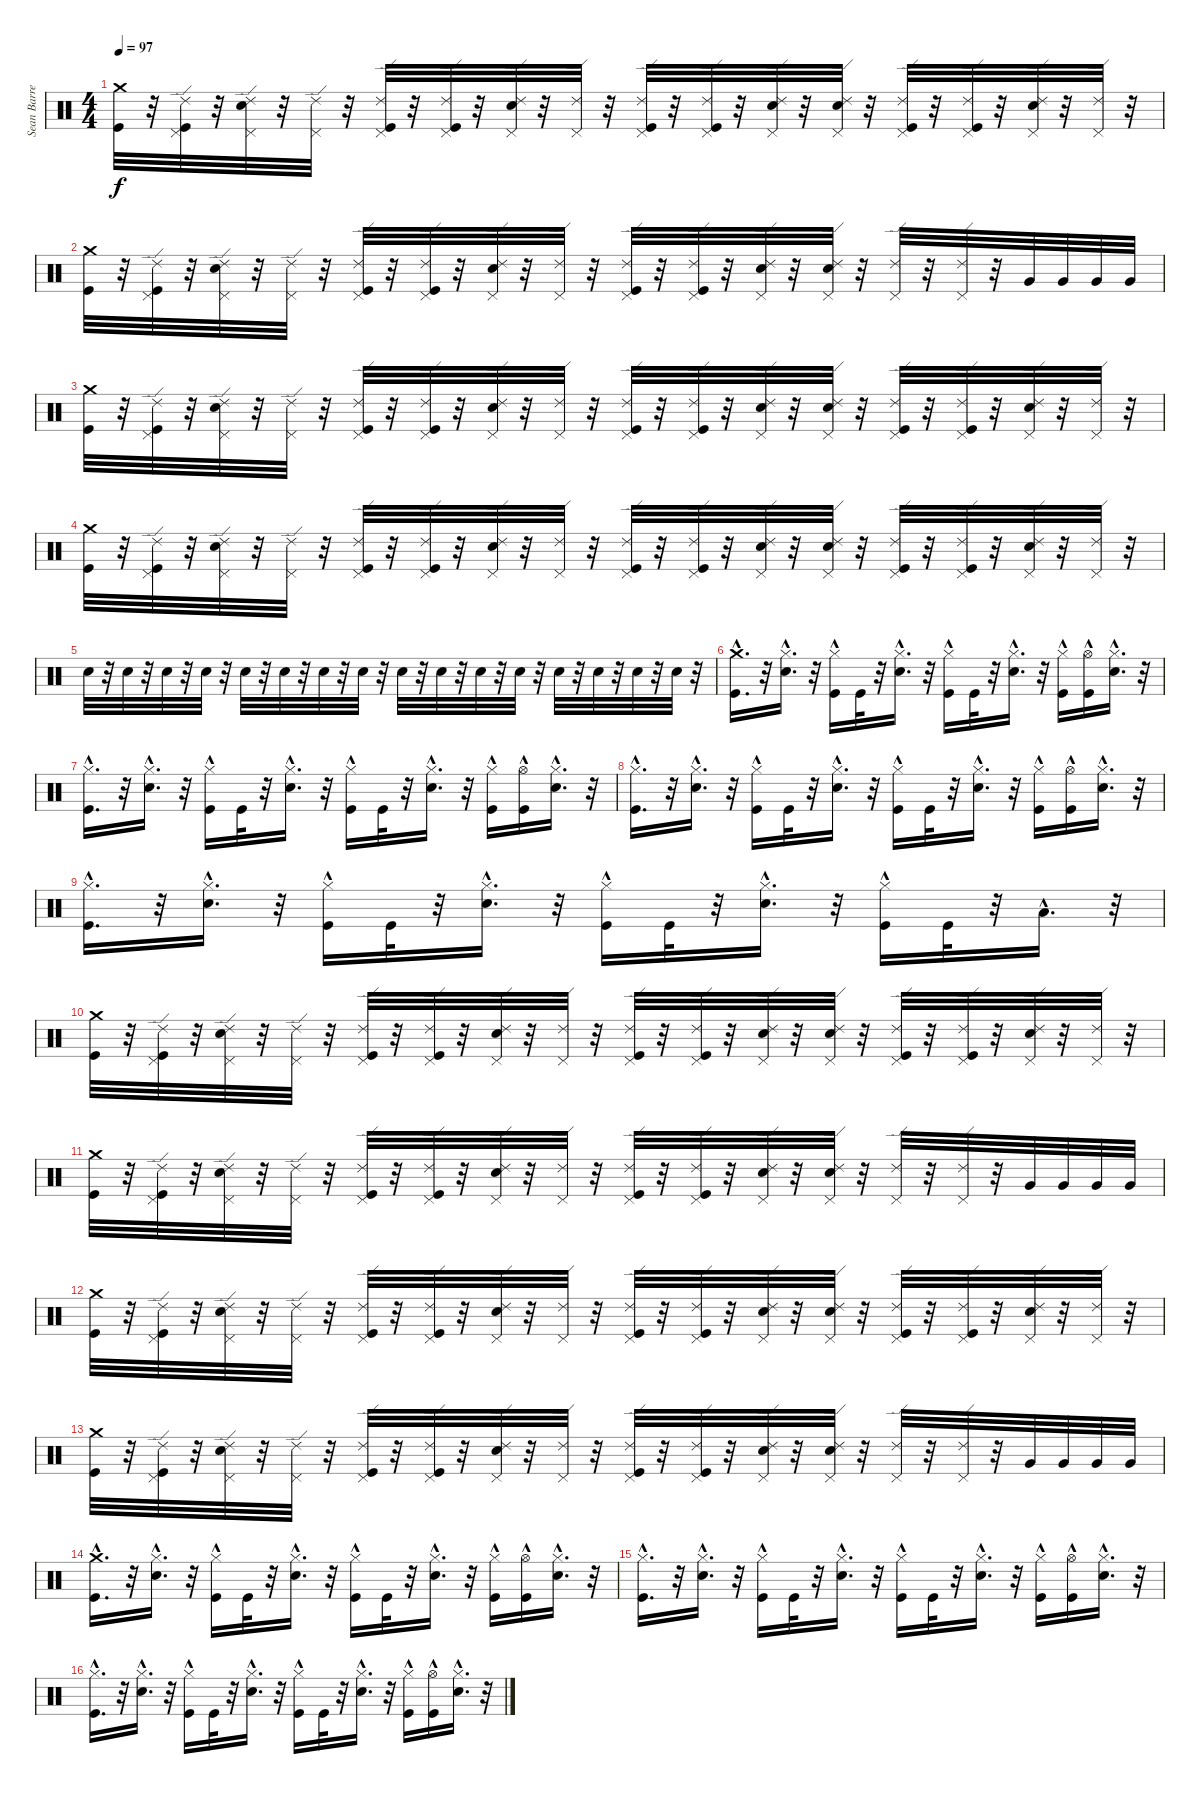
\track ("Sean Barrett" "Sean Barre") {instrument percussion}
\staff {score}
\articulation defaults
\ts (4 4)
\tempo 97
\clef neutral
\ks c
("Crash medium (hit)" "Kick (hit)").32{dy f} r.32 ("Pedal Hi-Hat (hit)" "Ride (edge) 2" "Kick (hit)").32 r.32 ("Pedal Hi-Hat (hit)" "Ride (edge) 2" "Snare (hit) 2").32 r.32 ("Pedal Hi-Hat (hit)" "Ride (edge) 2").32 r.32 ("Kick (hit)" "Pedal Hi-Hat (hit)" "Ride (edge) 2").32 r.32 ("Kick (hit)" "Pedal Hi-Hat (hit)" "Ride (edge) 2").32 r.32 ("Snare (hit) 2" "Pedal Hi-Hat (hit)" "Ride (edge) 2").32 r.32 ("Pedal Hi-Hat (hit)" "Ride (edge) 2").32 r.32 ("Kick (hit)" "Pedal Hi-Hat (hit)" "Ride (edge) 2").32 r.32 ("Kick (hit)" "Pedal Hi-Hat (hit)" "Ride (edge) 2").32 r.32 ("Snare (hit) 2" "Pedal Hi-Hat (hit)" "Ride (edge) 2").32 r.32 ("Snare (hit) 2" "Pedal Hi-Hat (hit)" "Ride (edge) 2").32 r.32 ("Kick (hit)" "Pedal Hi-Hat (hit)" "Ride (edge) 2").32 r.32 ("Kick (hit)" "Pedal Hi-Hat (hit)" "Ride (edge) 2").32 r.32 ("Snare (hit) 2" "Pedal Hi-Hat (hit)" "Ride (edge) 2").32 r.32 ("Pedal Hi-Hat (hit)" "Ride (edge) 2").32 r.32 |
("Crash medium (hit)" "Kick (hit)").32 r.32 ("Pedal Hi-Hat (hit)" "Ride (edge) 2" "Kick (hit)").32 r.32 ("Pedal Hi-Hat (hit)" "Ride (edge) 2" "Snare (hit) 2").32 r.32 ("Pedal Hi-Hat (hit)" "Ride (edge) 2").32 r.32 ("Kick (hit)" "Pedal Hi-Hat (hit)" "Ride (edge) 2").32 r.32 ("Kick (hit)" "Pedal Hi-Hat (hit)" "Ride (edge) 2").32 r.32 ("Snare (hit) 2" "Pedal Hi-Hat (hit)" "Ride (edge) 2").32 r.32 ("Pedal Hi-Hat (hit)" "Ride (edge) 2").32 r.32 ("Kick (hit)" "Pedal Hi-Hat (hit)" "Ride (edge) 2").32 r.32 ("Kick (hit)" "Pedal Hi-Hat (hit)" "Ride (edge) 2").32 r.32 ("Snare (hit) 2" "Pedal Hi-Hat (hit)" "Ride (edge) 2").32 r.32 ("Snare (hit) 2" "Pedal Hi-Hat (hit)" "Ride (edge) 2").32 r.32 ("Pedal Hi-Hat (hit)" "Ride (edge) 2").32 r.32 ("Pedal Hi-Hat (hit)" "Ride (edge) 2").32 r.32 "Very Low Tom (hit)".32 "Very Low Tom (hit)".32 "Very Low Tom (hit)".32 "Very Low Tom (hit)".32 |
("Crash medium (hit)" "Kick (hit)").32 r.32 ("Pedal Hi-Hat (hit)" "Ride (edge) 2" "Kick (hit)").32 r.32 ("Pedal Hi-Hat (hit)" "Ride (edge) 2" "Snare (hit) 2").32 r.32 ("Pedal Hi-Hat (hit)" "Ride (edge) 2").32 r.32 ("Kick (hit)" "Pedal Hi-Hat (hit)" "Ride (edge) 2").32 r.32 ("Kick (hit)" "Pedal Hi-Hat (hit)" "Ride (edge) 2").32 r.32 ("Snare (hit) 2" "Pedal Hi-Hat (hit)" "Ride (edge) 2").32 r.32 ("Pedal Hi-Hat (hit)" "Ride (edge) 2").32 r.32 ("Kick (hit)" "Pedal Hi-Hat (hit)" "Ride (edge) 2").32 r.32 ("Kick (hit)" "Pedal Hi-Hat (hit)" "Ride (edge) 2").32 r.32 ("Snare (hit) 2" "Pedal Hi-Hat (hit)" "Ride (edge) 2").32 r.32 ("Snare (hit) 2" "Pedal Hi-Hat (hit)" "Ride (edge) 2").32 r.32 ("Kick (hit)" "Pedal Hi-Hat (hit)" "Ride (edge) 2").32 r.32 ("Kick (hit)" "Pedal Hi-Hat (hit)" "Ride (edge) 2").32 r.32 ("Snare (hit) 2" "Pedal Hi-Hat (hit)" "Ride (edge) 2").32 r.32 ("Pedal Hi-Hat (hit)" "Ride (edge) 2").32 r.32 |
("Crash medium (hit)" "Kick (hit)").32 r.32 ("Pedal Hi-Hat (hit)" "Ride (edge) 2" "Kick (hit)").32 r.32 ("Pedal Hi-Hat (hit)" "Ride (edge) 2" "Snare (hit) 2").32 r.32 ("Pedal Hi-Hat (hit)" "Ride (edge) 2").32 r.32 ("Kick (hit)" "Pedal Hi-Hat (hit)" "Ride (edge) 2").32 r.32 ("Kick (hit)" "Pedal Hi-Hat (hit)" "Ride (edge) 2").32 r.32 ("Snare (hit) 2" "Pedal Hi-Hat (hit)" "Ride (edge) 2").32 r.32 ("Pedal Hi-Hat (hit)" "Ride (edge) 2").32 r.32 ("Kick (hit)" "Pedal Hi-Hat (hit)" "Ride (edge) 2").32 r.32 ("Kick (hit)" "Pedal Hi-Hat (hit)" "Ride (edge) 2").32 r.32 ("Snare (hit) 2" "Pedal Hi-Hat (hit)" "Ride (edge) 2").32 r.32 ("Snare (hit) 2" "Pedal Hi-Hat (hit)" "Ride (edge) 2").32 r.32 ("Kick (hit)" "Pedal Hi-Hat (hit)" "Ride (edge) 2").32 r.32 ("Kick (hit)" "Pedal Hi-Hat (hit)" "Ride (edge) 2").32 r.32 ("Snare (hit) 2" "Pedal Hi-Hat (hit)" "Ride (edge) 2").32 r.32 ("Pedal Hi-Hat (hit)" "Ride (edge) 2").32 r.32 |
"Snare (hit) 2".32 r.32 "Snare (hit) 2".32 r.32 "Snare (hit) 2".32 r.32 "Snare (hit) 2".32 r.32 "Snare (hit) 2".32 r.32 "Snare (hit) 2".32 r.32 "Snare (hit) 2".32 r.32 "Snare (hit) 2".32 r.32 "Snare (hit) 2".32 r.32 "Snare (hit) 2".32 r.32 "Snare (hit) 2".32 r.32 "Snare (hit) 2".32 r.32 "Snare (hit) 2".32 r.32 "Snare (hit) 2".32 r.32 "Snare (hit) 2".32 r.32 "Snare (hit) 2".32 r.32 |
("Kick (hit)"{hac} "Crash medium (hit)"{hac}).16{d} r.32 ("Hi-Hat (closed)"{hac} "Snare (hit) 2"{hac}).16{d} r.32 ("Kick (hit)" "Hi-Hat (closed)"{hac}).16 "Kick (hit)".32 r.32 ("Snare (hit) 2"{hac} "Hi-Hat (closed)"{hac}).16{d} r.32 ("Kick (hit)" "Hi-Hat (closed)"{hac}).16 "Kick (hit)".32 r.32 ("Snare (hit) 2"{hac} "Hi-Hat (closed)"{hac}).16{d} r.32 ("Kick (hit)" "Hi-Hat (closed)"{hac}).16 ("Hi-Hat (open)"{hac} "Kick (hit)").16 ("Hi-Hat (closed)"{hac} "Snare (hit) 2"{hac}).16{d} r.32 |
("Kick (hit)"{hac} "Hi-Hat (closed)"{hac}).16{d} r.32 ("Hi-Hat (closed)"{hac} "Snare (hit) 2"{hac}).16{d} r.32 ("Kick (hit)" "Hi-Hat (closed)"{hac}).16 "Kick (hit)".32 r.32 ("Snare (hit) 2"{hac} "Hi-Hat (closed)"{hac}).16{d} r.32 ("Kick (hit)" "Hi-Hat (closed)"{hac}).16 "Kick (hit)".32 r.32 ("Snare (hit) 2"{hac} "Hi-Hat (closed)"{hac}).16{d} r.32 ("Kick (hit)" "Hi-Hat (closed)"{hac}).16 ("Hi-Hat (open)"{hac} "Kick (hit)").16 ("Hi-Hat (closed)"{hac} "Snare (hit) 2"{hac}).16{d} r.32 |
("Hi-Hat (closed)"{hac} "Kick (hit)"{hac}).16{d} r.32 ("Hi-Hat (closed)"{hac} "Snare (hit) 2"{hac}).16{d} r.32 ("Kick (hit)" "Hi-Hat (closed)"{hac}).16 "Kick (hit)".32 r.32 ("Snare (hit) 2"{hac} "Hi-Hat (closed)"{hac}).16{d} r.32 ("Kick (hit)" "Hi-Hat (closed)"{hac}).16 "Kick (hit)".32 r.32 ("Snare (hit) 2"{hac} "Hi-Hat (closed)"{hac}).16{d} r.32 ("Kick (hit)" "Hi-Hat (closed)"{hac}).16 ("Hi-Hat (open)"{hac} "Kick (hit)").16 ("Hi-Hat (closed)"{hac} "Snare (hit) 2"{hac}).16{d} r.32 |
("Kick (hit)"{hac} "Hi-Hat (closed)"{hac}).16{d} r.32 ("Hi-Hat (closed)"{hac} "Snare (hit) 2"{hac}).16{d} r.32 ("Kick (hit)" "Hi-Hat (closed)"{hac}).16 "Kick (hit)".32 r.32 ("Snare (hit) 2"{hac} "Hi-Hat (closed)"{hac}).16{d} r.32 ("Kick (hit)" "Hi-Hat (closed)"{hac}).16 "Kick (hit)".32 r.32 ("Snare (hit) 2"{hac} "Hi-Hat (closed)"{hac}).16{d} r.32 ("Kick (hit)" "Hi-Hat (closed)"{hac}).16 "Kick (hit)".32 r.32 "Low Tom (hit)"{hac}.16{d} r.32 |
("Crash medium (hit)" "Kick (hit)").32 r.32 ("Pedal Hi-Hat (hit)" "Ride (edge) 2" "Kick (hit)").32 r.32 ("Pedal Hi-Hat (hit)" "Ride (edge) 2" "Snare (hit) 2").32 r.32 ("Pedal Hi-Hat (hit)" "Ride (edge) 2").32 r.32 ("Kick (hit)" "Pedal Hi-Hat (hit)" "Ride (edge) 2").32 r.32 ("Kick (hit)" "Pedal Hi-Hat (hit)" "Ride (edge) 2").32 r.32 ("Snare (hit) 2" "Pedal Hi-Hat (hit)" "Ride (edge) 2").32 r.32 ("Pedal Hi-Hat (hit)" "Ride (edge) 2").32 r.32 ("Kick (hit)" "Pedal Hi-Hat (hit)" "Ride (edge) 2").32 r.32 ("Kick (hit)" "Pedal Hi-Hat (hit)" "Ride (edge) 2").32 r.32 ("Snare (hit) 2" "Pedal Hi-Hat (hit)" "Ride (edge) 2").32 r.32 ("Snare (hit) 2" "Pedal Hi-Hat (hit)" "Ride (edge) 2").32 r.32 ("Kick (hit)" "Pedal Hi-Hat (hit)" "Ride (edge) 2").32 r.32 ("Kick (hit)" "Pedal Hi-Hat (hit)" "Ride (edge) 2").32 r.32 ("Snare (hit) 2" "Pedal Hi-Hat (hit)" "Ride (edge) 2").32 r.32 ("Pedal Hi-Hat (hit)" "Ride (edge) 2").32 r.32 |
("Crash medium (hit)" "Kick (hit)").32 r.32 ("Pedal Hi-Hat (hit)" "Ride (edge) 2" "Kick (hit)").32 r.32 ("Pedal Hi-Hat (hit)" "Ride (edge) 2" "Snare (hit) 2").32 r.32 ("Pedal Hi-Hat (hit)" "Ride (edge) 2").32 r.32 ("Kick (hit)" "Pedal Hi-Hat (hit)" "Ride (edge) 2").32 r.32 ("Kick (hit)" "Pedal Hi-Hat (hit)" "Ride (edge) 2").32 r.32 ("Snare (hit) 2" "Pedal Hi-Hat (hit)" "Ride (edge) 2").32 r.32 ("Pedal Hi-Hat (hit)" "Ride (edge) 2").32 r.32 ("Kick (hit)" "Pedal Hi-Hat (hit)" "Ride (edge) 2").32 r.32 ("Kick (hit)" "Pedal Hi-Hat (hit)" "Ride (edge) 2").32 r.32 ("Snare (hit) 2" "Pedal Hi-Hat (hit)" "Ride (edge) 2").32 r.32 ("Snare (hit) 2" "Pedal Hi-Hat (hit)" "Ride (edge) 2").32 r.32 ("Pedal Hi-Hat (hit)" "Ride (edge) 2").32 r.32 ("Pedal Hi-Hat (hit)" "Ride (edge) 2").32 r.32 "Very Low Tom (hit)".32 "Very Low Tom (hit)".32 "Very Low Tom (hit)".32 "Very Low Tom (hit)".32 |
("Crash medium (hit)" "Kick (hit)").32 r.32 ("Pedal Hi-Hat (hit)" "Ride (edge) 2" "Kick (hit)").32 r.32 ("Pedal Hi-Hat (hit)" "Ride (edge) 2" "Snare (hit) 2").32 r.32 ("Pedal Hi-Hat (hit)" "Ride (edge) 2").32 r.32 ("Kick (hit)" "Pedal Hi-Hat (hit)" "Ride (edge) 2").32 r.32 ("Kick (hit)" "Pedal Hi-Hat (hit)" "Ride (edge) 2").32 r.32 ("Snare (hit) 2" "Pedal Hi-Hat (hit)" "Ride (edge) 2").32 r.32 ("Pedal Hi-Hat (hit)" "Ride (edge) 2").32 r.32 ("Kick (hit)" "Pedal Hi-Hat (hit)" "Ride (edge) 2").32 r.32 ("Kick (hit)" "Pedal Hi-Hat (hit)" "Ride (edge) 2").32 r.32 ("Snare (hit) 2" "Pedal Hi-Hat (hit)" "Ride (edge) 2").32 r.32 ("Snare (hit) 2" "Pedal Hi-Hat (hit)" "Ride (edge) 2").32 r.32 ("Kick (hit)" "Pedal Hi-Hat (hit)" "Ride (edge) 2").32 r.32 ("Kick (hit)" "Pedal Hi-Hat (hit)" "Ride (edge) 2").32 r.32 ("Snare (hit) 2" "Pedal Hi-Hat (hit)" "Ride (edge) 2").32 r.32 ("Pedal Hi-Hat (hit)" "Ride (edge) 2").32 r.32 |
("Crash medium (hit)" "Kick (hit)").32 r.32 ("Pedal Hi-Hat (hit)" "Ride (edge) 2" "Kick (hit)").32 r.32 ("Pedal Hi-Hat (hit)" "Ride (edge) 2" "Snare (hit) 2").32 r.32 ("Pedal Hi-Hat (hit)" "Ride (edge) 2").32 r.32 ("Kick (hit)" "Pedal Hi-Hat (hit)" "Ride (edge) 2").32 r.32 ("Kick (hit)" "Pedal Hi-Hat (hit)" "Ride (edge) 2").32 r.32 ("Snare (hit) 2" "Pedal Hi-Hat (hit)" "Ride (edge) 2").32 r.32 ("Pedal Hi-Hat (hit)" "Ride (edge) 2").32 r.32 ("Kick (hit)" "Pedal Hi-Hat (hit)" "Ride (edge) 2").32 r.32 ("Kick (hit)" "Pedal Hi-Hat (hit)" "Ride (edge) 2").32 r.32 ("Snare (hit) 2" "Pedal Hi-Hat (hit)" "Ride (edge) 2").32 r.32 ("Snare (hit) 2" "Pedal Hi-Hat (hit)" "Ride (edge) 2").32 r.32 ("Pedal Hi-Hat (hit)" "Ride (edge) 2").32 r.32 ("Pedal Hi-Hat (hit)" "Ride (edge) 2").32 r.32 "Very Low Tom (hit)".32 "Very Low Tom (hit)".32 "Very Low Tom (hit)".32 "Very Low Tom (hit)".32 |
("Kick (hit)"{hac} "Crash medium (hit)"{hac}).16{d} r.32 ("Hi-Hat (closed)"{hac} "Snare (hit) 2"{hac}).16{d} r.32 ("Kick (hit)" "Hi-Hat (closed)"{hac}).16 "Kick (hit)".32 r.32 ("Snare (hit) 2"{hac} "Hi-Hat (closed)"{hac}).16{d} r.32 ("Kick (hit)" "Hi-Hat (closed)"{hac}).16 "Kick (hit)".32 r.32 ("Snare (hit) 2"{hac} "Hi-Hat (closed)"{hac}).16{d} r.32 ("Kick (hit)" "Hi-Hat (closed)"{hac}).16 ("Hi-Hat (open)"{hac} "Kick (hit)").16 ("Hi-Hat (closed)"{hac} "Snare (hit) 2"{hac}).16{d} r.32 |
("Kick (hit)"{hac} "Hi-Hat (closed)"{hac}).16{d} r.32 ("Hi-Hat (closed)"{hac} "Snare (hit) 2"{hac}).16{d} r.32 ("Kick (hit)" "Hi-Hat (closed)"{hac}).16 "Kick (hit)".32 r.32 ("Snare (hit) 2"{hac} "Hi-Hat (closed)"{hac}).16{d} r.32 ("Kick (hit)" "Hi-Hat (closed)"{hac}).16 "Kick (hit)".32 r.32 ("Snare (hit) 2"{hac} "Hi-Hat (closed)"{hac}).16{d} r.32 ("Kick (hit)" "Hi-Hat (closed)"{hac}).16 ("Hi-Hat (open)"{hac} "Kick (hit)").16 ("Hi-Hat (closed)"{hac} "Snare (hit) 2"{hac}).16{d} r.32 |
("Hi-Hat (closed)"{hac} "Kick (hit)"{hac}).16{d} r.32 ("Hi-Hat (closed)"{hac} "Snare (hit) 2"{hac}).16{d} r.32 ("Kick (hit)" "Hi-Hat (closed)"{hac}).16 "Kick (hit)".32 r.32 ("Snare (hit) 2"{hac} "Hi-Hat (closed)"{hac}).16{d} r.32 ("Kick (hit)" "Hi-Hat (closed)"{hac}).16 "Kick (hit)".32 r.32 ("Snare (hit) 2"{hac} "Hi-Hat (closed)"{hac}).16{d} r.32 ("Kick (hit)" "Hi-Hat (closed)"{hac}).16 ("Hi-Hat (open)"{hac} "Kick (hit)").16 ("Hi-Hat (closed)"{hac} "Snare (hit) 2"{hac}).16{d} r.32
